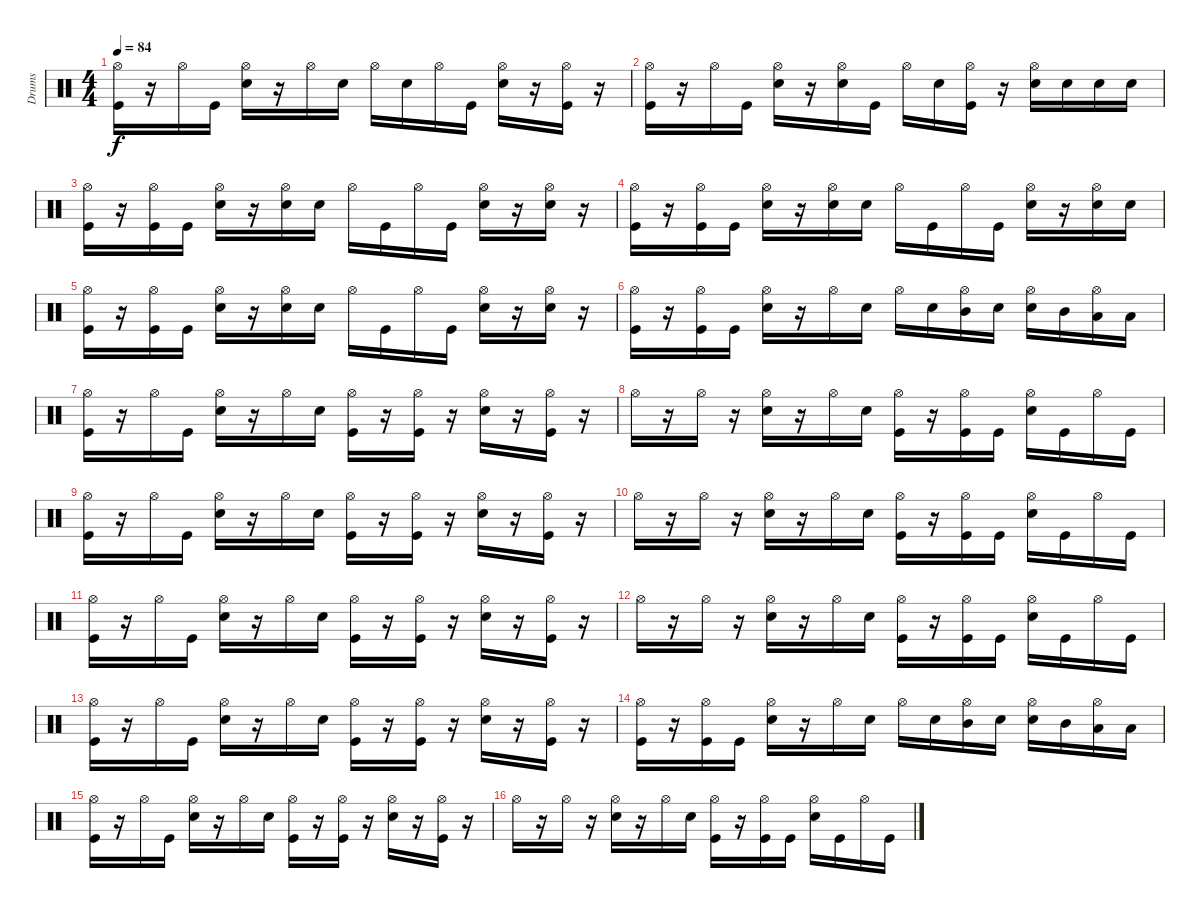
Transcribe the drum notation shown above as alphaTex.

\track ("Drums" "Drums") {instrument percussion}
\staff {score}
\articulation defaults
\ts (4 4)
\tempo 84
\clef neutral
\ks c
("Hi-Hat (open)" "Kick (hit)").16{dy f} r.16 "Hi-Hat (open)".16 "Kick (hit)".16 ("Hi-Hat (open)" "Snare (hit) 2").16 r.16 "Hi-Hat (open)".16 "Snare (hit) 2".16 "Hi-Hat (open)".16 "Snare (hit) 2".16 "Hi-Hat (open)".16 "Kick (hit)".16 ("Hi-Hat (open)" "Snare (hit) 2").16 r.16 ("Hi-Hat (open)" "Kick (hit)").16 r.16 |
("Hi-Hat (open)" "Kick (hit)").16 r.16 "Hi-Hat (open)".16 "Kick (hit)".16 ("Hi-Hat (open)" "Snare (hit) 2").16 r.16 ("Hi-Hat (open)" "Snare (hit) 2").16 "Kick (hit)".16 "Hi-Hat (open)".16 "Snare (hit) 2".16 ("Hi-Hat (open)" "Kick (hit)").16 r.16 ("Hi-Hat (open)" "Snare (hit) 2").16 "Snare (hit) 2".16 "Snare (hit) 2".16 "Snare (hit) 2".16 |
("Hi-Hat (open)" "Kick (hit)").16 r.16 ("Hi-Hat (open)" "Kick (hit)").16 "Kick (hit)".16 ("Hi-Hat (open)" "Snare (hit) 2").16 r.16 ("Hi-Hat (open)" "Snare (hit) 2").16 "Snare (hit) 2".16 "Hi-Hat (open)".16 "Kick (hit)".16 "Hi-Hat (open)".16 "Kick (hit)".16 ("Hi-Hat (open)" "Snare (hit) 2").16 r.16 ("Hi-Hat (open)" "Snare (hit) 2").16 r.16 |
("Hi-Hat (open)" "Kick (hit)").16 r.16 ("Hi-Hat (open)" "Kick (hit)").16 "Kick (hit)".16 ("Hi-Hat (open)" "Snare (hit) 2").16 r.16 ("Hi-Hat (open)" "Snare (hit) 2").16 "Snare (hit) 2".16 "Hi-Hat (open)".16 "Kick (hit)".16 "Hi-Hat (open)".16 "Kick (hit)".16 ("Hi-Hat (open)" "Snare (hit) 2").16 r.16 ("Hi-Hat (open)" "Snare (hit) 2").16 "Snare (hit) 2".16 |
("Hi-Hat (open)" "Kick (hit)").16 r.16 ("Hi-Hat (open)" "Kick (hit)").16 "Kick (hit)".16 ("Hi-Hat (open)" "Snare (hit) 2").16 r.16 ("Hi-Hat (open)" "Snare (hit) 2").16 "Snare (hit) 2".16 "Hi-Hat (open)".16 "Kick (hit)".16 "Hi-Hat (open)".16 "Kick (hit)".16 ("Hi-Hat (open)" "Snare (hit) 2").16 r.16 ("Hi-Hat (open)" "Snare (hit) 2").16 r.16 |
("Hi-Hat (open)" "Kick (hit)").16 r.16 ("Hi-Hat (open)" "Kick (hit)").16 "Kick (hit)".16 ("Hi-Hat (open)" "Snare (hit) 2").16 r.16 "Hi-Hat (open)".16 "Snare (hit) 2".16 "Hi-Hat (open)".16 "Snare (hit) 2".16 ("Hi-Hat (open)" "Mid Tom (hit)").16 "Snare (hit) 2".16 ("Hi-Hat (open)" "Snare (hit) 2").16 "Mid Tom (hit)".16 ("Hi-Hat (open)" "Low Tom (hit)").16 "Low Floor Tom (hit)".16 |
("Hi-Hat (open)" "Kick (hit)").16 r.16 "Hi-Hat (open)".16 "Kick (hit)".16 ("Hi-Hat (open)" "Snare (hit) 2").16 r.16 "Hi-Hat (open)".16 "Snare (hit) 2".16 ("Hi-Hat (open)" "Kick (hit)").16 r.16 ("Hi-Hat (open)" "Kick (hit)").16 r.16 ("Hi-Hat (open)" "Snare (hit) 2").16 r.16 ("Hi-Hat (open)" "Kick (hit)").16 r.16 |
"Hi-Hat (open)".16 r.16 "Hi-Hat (open)".16 r.16 ("Hi-Hat (open)" "Snare (hit) 2").16 r.16 "Hi-Hat (open)".16 "Snare (hit) 2".16 ("Hi-Hat (open)" "Kick (hit)").16 r.16 ("Hi-Hat (open)" "Kick (hit)").16 "Kick (hit)".16 ("Hi-Hat (open)" "Snare (hit) 2").16 "Kick (hit)".16 "Hi-Hat (open)".16 "Kick (hit)".16 |
("Hi-Hat (open)" "Kick (hit)").16 r.16 "Hi-Hat (open)".16 "Kick (hit)".16 ("Hi-Hat (open)" "Snare (hit) 2").16 r.16 "Hi-Hat (open)".16 "Snare (hit) 2".16 ("Hi-Hat (open)" "Kick (hit)").16 r.16 ("Hi-Hat (open)" "Kick (hit)").16 r.16 ("Hi-Hat (open)" "Snare (hit) 2").16 r.16 ("Hi-Hat (open)" "Kick (hit)").16 r.16 |
"Hi-Hat (open)".16 r.16 "Hi-Hat (open)".16 r.16 ("Hi-Hat (open)" "Snare (hit) 2").16 r.16 "Hi-Hat (open)".16 "Snare (hit) 2".16 ("Hi-Hat (open)" "Kick (hit)").16 r.16 ("Hi-Hat (open)" "Kick (hit)").16 "Kick (hit)".16 ("Hi-Hat (open)" "Snare (hit) 2").16 "Kick (hit)".16 "Hi-Hat (open)".16 "Kick (hit)".16 |
("Hi-Hat (open)" "Kick (hit)").16 r.16 "Hi-Hat (open)".16 "Kick (hit)".16 ("Hi-Hat (open)" "Snare (hit) 2").16 r.16 "Hi-Hat (open)".16 "Snare (hit) 2".16 ("Hi-Hat (open)" "Kick (hit)").16 r.16 ("Hi-Hat (open)" "Kick (hit)").16 r.16 ("Hi-Hat (open)" "Snare (hit) 2").16 r.16 ("Hi-Hat (open)" "Kick (hit)").16 r.16 |
"Hi-Hat (open)".16 r.16 "Hi-Hat (open)".16 r.16 ("Hi-Hat (open)" "Snare (hit) 2").16 r.16 "Hi-Hat (open)".16 "Snare (hit) 2".16 ("Hi-Hat (open)" "Kick (hit)").16 r.16 ("Hi-Hat (open)" "Kick (hit)").16 "Kick (hit)".16 ("Hi-Hat (open)" "Snare (hit) 2").16 "Kick (hit)".16 "Hi-Hat (open)".16 "Kick (hit)".16 |
("Hi-Hat (open)" "Kick (hit)").16 r.16 "Hi-Hat (open)".16 "Kick (hit)".16 ("Hi-Hat (open)" "Snare (hit) 2").16 r.16 "Hi-Hat (open)".16 "Snare (hit) 2".16 ("Hi-Hat (open)" "Kick (hit)").16 r.16 ("Hi-Hat (open)" "Kick (hit)").16 r.16 ("Hi-Hat (open)" "Snare (hit) 2").16 r.16 ("Hi-Hat (open)" "Kick (hit)").16 r.16 |
("Hi-Hat (open)" "Kick (hit)").16 r.16 ("Hi-Hat (open)" "Kick (hit)").16 "Kick (hit)".16 ("Hi-Hat (open)" "Snare (hit) 2").16 r.16 "Hi-Hat (open)".16 "Snare (hit) 2".16 "Hi-Hat (open)".16 "Snare (hit) 2".16 ("Hi-Hat (open)" "Mid Tom (hit)").16 "Snare (hit) 2".16 ("Hi-Hat (open)" "Snare (hit) 2").16 "Mid Tom (hit)".16 ("Hi-Hat (open)" "Low Tom (hit)").16 "Low Floor Tom (hit)".16 |
("Hi-Hat (open)" "Kick (hit)").16 r.16 "Hi-Hat (open)".16 "Kick (hit)".16 ("Hi-Hat (open)" "Snare (hit) 2").16 r.16 "Hi-Hat (open)".16 "Snare (hit) 2".16 ("Hi-Hat (open)" "Kick (hit)").16 r.16 ("Hi-Hat (open)" "Kick (hit)").16 r.16 ("Hi-Hat (open)" "Snare (hit) 2").16 r.16 ("Hi-Hat (open)" "Kick (hit)").16 r.16 |
"Hi-Hat (open)".16 r.16 "Hi-Hat (open)".16 r.16 ("Hi-Hat (open)" "Snare (hit) 2").16 r.16 "Hi-Hat (open)".16 "Snare (hit) 2".16 ("Hi-Hat (open)" "Kick (hit)").16 r.16 ("Hi-Hat (open)" "Kick (hit)").16 "Kick (hit)".16 ("Hi-Hat (open)" "Snare (hit) 2").16 "Kick (hit)".16 "Hi-Hat (open)".16 "Kick (hit)".16
